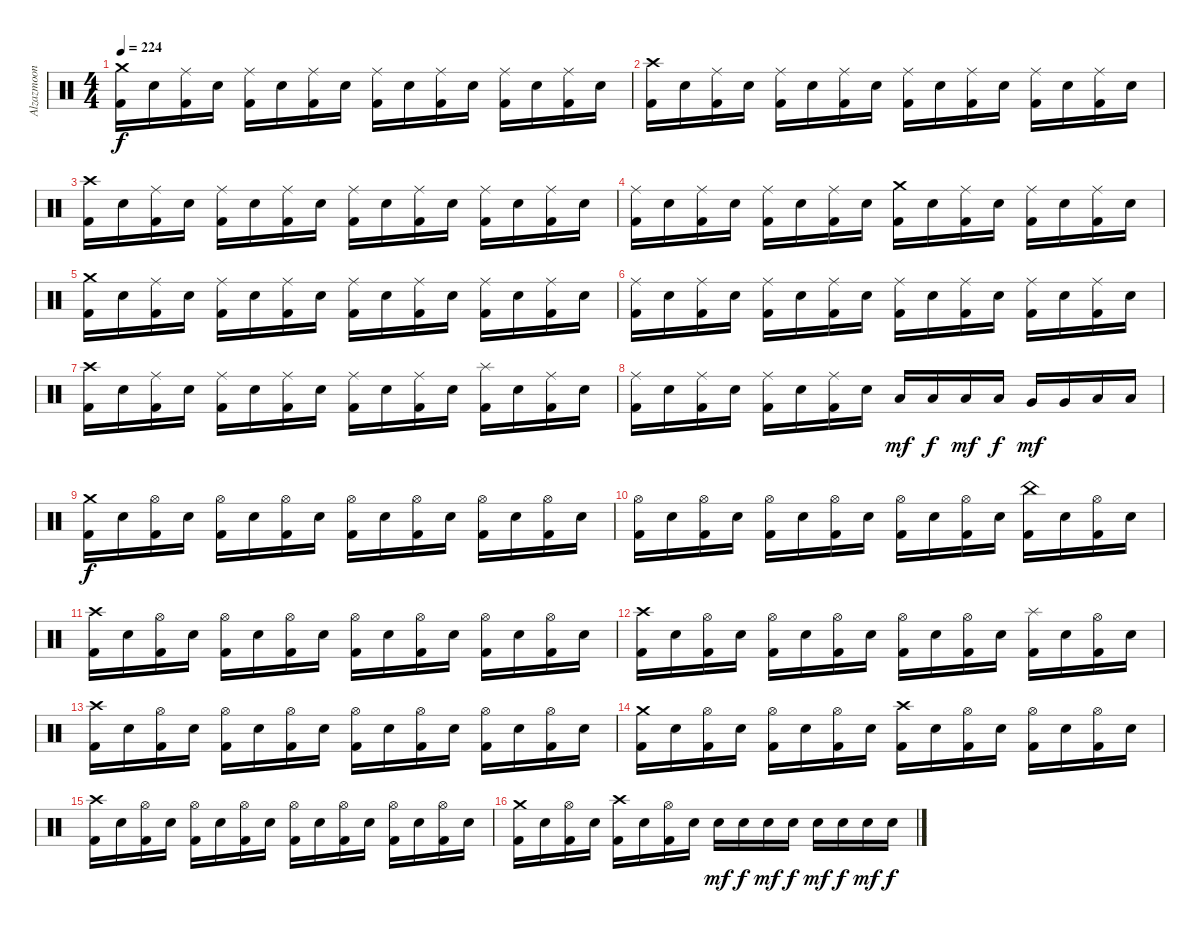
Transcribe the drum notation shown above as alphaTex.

\track ("Alzazmoon" "Alzazmoon") {instrument percussion}
\staff {score}
\articulation defaults
\ts (4 4)
\tempo 224
\clef neutral
\ks c
("Crash medium (hit)" "Kick (hit) 2").16{dy f} "Snare (hit) 2".16 ("Ride (middle)" "Kick (hit) 2").16 "Snare (hit) 2".16 ("Ride (middle)" "Kick (hit) 2").16 "Snare (hit) 2".16 ("Ride (middle)" "Kick (hit) 2").16 "Snare (hit) 2".16 ("Ride (middle)" "Kick (hit) 2").16 "Snare (hit) 2".16 ("Ride (middle)" "Kick (hit) 2").16 "Snare (hit) 2".16 ("Ride (middle)" "Kick (hit) 2").16 "Snare (hit) 2".16 ("Ride (middle)" "Kick (hit) 2").16 "Snare (hit) 2".16 |
("Crash high (hit)" "Kick (hit) 2").16 "Snare (hit) 2".16 ("Ride (middle)" "Kick (hit) 2").16 "Snare (hit) 2".16 ("Ride (middle)" "Kick (hit) 2").16 "Snare (hit) 2".16 ("Ride (middle)" "Kick (hit) 2").16 "Snare (hit) 2".16 ("Ride (middle)" "Kick (hit) 2").16 "Snare (hit) 2".16 ("Ride (middle)" "Kick (hit) 2").16 "Snare (hit) 2".16 ("Ride (middle)" "Kick (hit) 2").16 "Snare (hit) 2".16 ("Ride (middle)" "Kick (hit) 2").16 "Snare (hit) 2".16 |
("Crash high (hit)" "Kick (hit) 2").16 "Snare (hit) 2".16 ("Ride (middle)" "Kick (hit) 2").16 "Snare (hit) 2".16 ("Ride (middle)" "Kick (hit) 2").16 "Snare (hit) 2".16 ("Ride (middle)" "Kick (hit) 2").16 "Snare (hit) 2".16 ("Ride (middle)" "Kick (hit) 2").16 "Snare (hit) 2".16 ("Ride (middle)" "Kick (hit) 2").16 "Snare (hit) 2".16 ("Ride (middle)" "Kick (hit) 2").16 "Snare (hit) 2".16 ("Ride (middle)" "Kick (hit) 2").16 "Snare (hit) 2".16 |
("Ride (middle)" "Kick (hit) 2").16 "Snare (hit) 2".16 ("Ride (middle)" "Kick (hit) 2").16 "Snare (hit) 2".16 ("Ride (middle)" "Kick (hit) 2").16 "Snare (hit) 2".16 ("Ride (middle)" "Kick (hit) 2").16 "Snare (hit) 2".16 ("Crash medium (hit)" "Kick (hit) 2").16 "Snare (hit) 2".16 ("Ride (middle)" "Kick (hit) 2").16 "Snare (hit) 2".16 ("Ride (middle)" "Kick (hit) 2").16 "Snare (hit) 2".16 ("Ride (middle)" "Kick (hit) 2").16 "Snare (hit) 2".16 |
("Crash medium (hit)" "Kick (hit) 2").16 "Snare (hit) 2".16 ("Ride (middle)" "Kick (hit) 2").16 "Snare (hit) 2".16 ("Ride (middle)" "Kick (hit) 2").16 "Snare (hit) 2".16 ("Ride (middle)" "Kick (hit) 2").16 "Snare (hit) 2".16 ("Ride (middle)" "Kick (hit) 2").16 "Snare (hit) 2".16 ("Ride (middle)" "Kick (hit) 2").16 "Snare (hit) 2".16 ("Ride (middle)" "Kick (hit) 2").16 "Snare (hit) 2".16 ("Ride (middle)" "Kick (hit) 2").16 "Snare (hit) 2".16 |
("Ride (middle)" "Kick (hit) 2").16 "Snare (hit) 2".16 ("Ride (middle)" "Kick (hit) 2").16 "Snare (hit) 2".16 ("Ride (middle)" "Kick (hit) 2").16 "Snare (hit) 2".16 ("Ride (middle)" "Kick (hit) 2").16 "Snare (hit) 2".16 ("Ride (middle)" "Kick (hit) 2").16 "Snare (hit) 2".16 ("Ride (middle)" "Kick (hit) 2").16 "Snare (hit) 2".16 ("Ride (middle)" "Kick (hit) 2").16 "Snare (hit) 2".16 ("Ride (middle)" "Kick (hit) 2").16 "Snare (hit) 2".16 |
("Crash high (hit)" "Kick (hit) 2").16 "Snare (hit) 2".16 ("Ride (middle)" "Kick (hit) 2").16 "Snare (hit) 2".16 ("Ride (middle)" "Kick (hit) 2").16 "Snare (hit) 2".16 ("Ride (middle)" "Kick (hit) 2").16 "Snare (hit) 2".16 ("Ride (middle)" "Kick (hit) 2").16 "Snare (hit) 2".16 ("Ride (middle)" "Kick (hit) 2").16 "Snare (hit) 2".16 ("Splash (hit)" "Kick (hit) 2").16 "Snare (hit) 2".16 ("Ride (middle)" "Kick (hit) 2").16 "Snare (hit) 2".16 |
("Ride (middle)" "Kick (hit) 2").16 "Snare (hit) 2".16 ("Ride (middle)" "Kick (hit) 2").16 "Snare (hit) 2".16 ("Ride (middle)" "Kick (hit) 2").16 "Snare (hit) 2".16 ("Ride (middle)" "Kick (hit) 2").16 "Snare (hit) 2".16 "Low Tom (hit)".16{dy mf} "Low Tom (hit)".16{dy f} "Low Tom (hit)".16{dy mf} "Low Tom (hit)".16{dy f} "Very Low Tom (hit)".16{dy mf} "Very Low Tom (hit)".16 "Low Floor Tom (hit)".16 "Low Floor Tom (hit)".16 |
("Crash medium (hit)" "Kick (hit) 2").16{dy f} "Snare (hit) 2".16 ("Hi-Hat (open)" "Kick (hit) 2").16 "Snare (hit) 2".16 ("Hi-Hat (open)" "Kick (hit) 2").16 "Snare (hit) 2".16 ("Hi-Hat (open)" "Kick (hit) 2").16 "Snare (hit) 2".16 ("Hi-Hat (open)" "Kick (hit) 2").16 "Snare (hit) 2".16 ("Hi-Hat (open)" "Kick (hit) 2").16 "Snare (hit) 2".16 ("Hi-Hat (open)" "Kick (hit) 2").16 "Snare (hit) 2".16 ("Hi-Hat (open)" "Kick (hit) 2").16 "Snare (hit) 2".16 |
("Hi-Hat (open)" "Kick (hit) 2").16 "Snare (hit) 2".16 ("Hi-Hat (open)" "Kick (hit) 2").16 "Snare (hit) 2".16 ("Hi-Hat (open)" "Kick (hit) 2").16 "Snare (hit) 2".16 ("Hi-Hat (open)" "Kick (hit) 2").16 "Snare (hit) 2".16 ("Hi-Hat (open)" "Kick (hit) 2").16 "Snare (hit) 2".16 ("Hi-Hat (open)" "Kick (hit) 2").16 "Snare (hit) 2".16 ("China (hit)" "Kick (hit) 2").16 "Snare (hit) 2".16 ("Hi-Hat (open)" "Kick (hit) 2").16 "Snare (hit) 2".16 |
("Crash high (hit)" "Kick (hit) 2").16 "Snare (hit) 2".16 ("Hi-Hat (open)" "Kick (hit) 2").16 "Snare (hit) 2".16 ("Hi-Hat (open)" "Kick (hit) 2").16 "Snare (hit) 2".16 ("Hi-Hat (open)" "Kick (hit) 2").16 "Snare (hit) 2".16 ("Hi-Hat (open)" "Kick (hit) 2").16 "Snare (hit) 2".16 ("Hi-Hat (open)" "Kick (hit) 2").16 "Snare (hit) 2".16 ("Hi-Hat (open)" "Kick (hit) 2").16 "Snare (hit) 2".16 ("Hi-Hat (open)" "Kick (hit) 2").16 "Snare (hit) 2".16 |
("Crash high (hit)" "Kick (hit) 2").16 "Snare (hit) 2".16 ("Hi-Hat (open)" "Kick (hit) 2").16 "Snare (hit) 2".16 ("Hi-Hat (open)" "Kick (hit) 2").16 "Snare (hit) 2".16 ("Hi-Hat (open)" "Kick (hit) 2").16 "Snare (hit) 2".16 ("Hi-Hat (open)" "Kick (hit) 2").16 "Snare (hit) 2".16 ("Hi-Hat (open)" "Kick (hit) 2").16 "Snare (hit) 2".16 ("Splash (hit)" "Kick (hit) 2").16 "Snare (hit) 2".16 ("Hi-Hat (open)" "Kick (hit) 2").16 "Snare (hit) 2".16 |
("Crash high (hit)" "Kick (hit) 2").16 "Snare (hit) 2".16 ("Hi-Hat (open)" "Kick (hit) 2").16 "Snare (hit) 2".16 ("Hi-Hat (open)" "Kick (hit) 2").16 "Snare (hit) 2".16 ("Hi-Hat (open)" "Kick (hit) 2").16 "Snare (hit) 2".16 ("Hi-Hat (open)" "Kick (hit) 2").16 "Snare (hit) 2".16 ("Hi-Hat (open)" "Kick (hit) 2").16 "Snare (hit) 2".16 ("Hi-Hat (open)" "Kick (hit) 2").16 "Snare (hit) 2".16 ("Hi-Hat (open)" "Kick (hit) 2").16 "Snare (hit) 2".16 |
("Crash medium (hit)" "Kick (hit) 2").16 "Snare (hit) 2".16 ("Hi-Hat (open)" "Kick (hit) 2").16 "Snare (hit) 2".16 ("Hi-Hat (open)" "Kick (hit) 2").16 "Snare (hit) 2".16 ("Hi-Hat (open)" "Kick (hit) 2").16 "Snare (hit) 2".16 ("Crash high (hit)" "Kick (hit) 2").16 "Snare (hit) 2".16 ("Hi-Hat (open)" "Kick (hit) 2").16 "Snare (hit) 2".16 ("Hi-Hat (open)" "Kick (hit) 2").16 "Snare (hit) 2".16 ("Hi-Hat (open)" "Kick (hit) 2").16 "Snare (hit) 2".16 |
("Crash high (hit)" "Kick (hit) 2").16 "Snare (hit) 2".16 ("Hi-Hat (open)" "Kick (hit) 2").16 "Snare (hit) 2".16 ("Hi-Hat (open)" "Kick (hit) 2").16 "Snare (hit) 2".16 ("Hi-Hat (open)" "Kick (hit) 2").16 "Snare (hit) 2".16 ("Hi-Hat (open)" "Kick (hit) 2").16 "Snare (hit) 2".16 ("Hi-Hat (open)" "Kick (hit) 2").16 "Snare (hit) 2".16 ("Hi-Hat (open)" "Kick (hit) 2").16 "Snare (hit) 2".16 ("Hi-Hat (open)" "Kick (hit) 2").16 "Snare (hit) 2".16 |
("Crash medium (hit)" "Kick (hit) 2").16 "Snare (hit) 2".16 ("Hi-Hat (open)" "Kick (hit) 2").16 "Snare (hit) 2".16 ("Crash high (hit)" "Kick (hit) 2").16 "Snare (hit) 2".16 ("Hi-Hat (open)" "Kick (hit) 2").16 "Snare (hit) 2".16 "Snare (hit) 2".16{dy mf} "Snare (hit) 2".16{dy f} "Snare (hit) 2".16{dy mf} "Snare (hit) 2".16{dy f} "Snare (hit) 2".16{dy mf} "Snare (hit) 2".16{dy f} "Snare (hit) 2".16{dy mf} "Snare (hit) 2".16{dy f}
